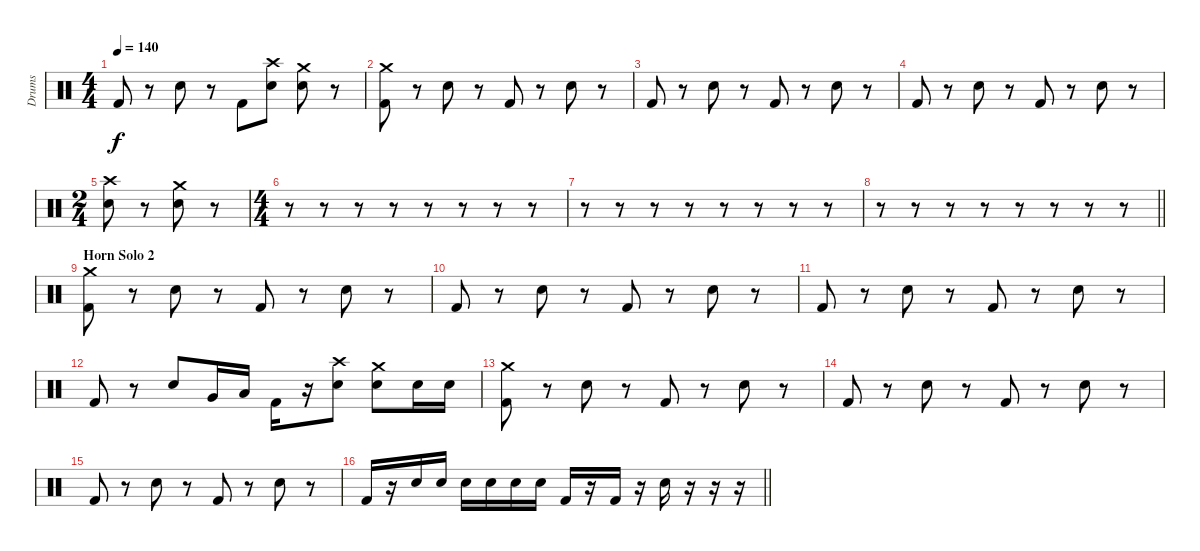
\track ("Drums" "Drums") {instrument percussion}
\staff {score}
\articulation defaults
\ts (4 4)
\tempo 140
\clef neutral
\ks c "Kick (hit) 2".8{dy f}
r.8 "Snare (hit) 2".8 r.8 "Kick (hit) 2".8 ("Crash high (hit)" "Snare (hit) 2").8 ("Crash medium (hit)" "Snare (hit) 2").8 r.8 |
("Crash medium (hit)" "Kick (hit) 2").8 r.8 "Snare (hit) 2".8 r.8 "Kick (hit) 2".8 r.8 "Snare (hit) 2".8 r.8 |
"Kick (hit) 2".8 r.8 "Snare (hit) 2".8 r.8 "Kick (hit) 2".8 r.8 "Snare (hit) 2".8 r.8 |
"Kick (hit) 2".8 r.8 "Snare (hit) 2".8 r.8 "Kick (hit) 2".8 r.8 "Snare (hit) 2".8 r.8 |
\ts (2 4)
("Crash high (hit)" "Snare (hit) 2").8 r.8 ("Crash medium (hit)" "Snare (hit) 2").8 r.8 |
\ts (4 4)
r.8 r.8 r.8 r.8 r.8 r.8 r.8 r.8 |
r.8 r.8 r.8 r.8 r.8 r.8 r.8 r.8 |
\barLineRight lightlight
r.8 r.8 r.8 r.8 r.8 r.8 r.8 r.8 |
\section ("" "Horn Solo 2")
("Crash medium (hit)" "Kick (hit) 2").8 r.8 "Snare (hit) 2".8 r.8 "Kick (hit) 2".8 r.8 "Snare (hit) 2".8 r.8 |
"Kick (hit) 2".8 r.8 "Snare (hit) 2".8 r.8 "Kick (hit) 2".8 r.8 "Snare (hit) 2".8 r.8 |
"Kick (hit) 2".8 r.8 "Snare (hit) 2".8 r.8 "Kick (hit) 2".8 r.8 "Snare (hit) 2".8 r.8 |
"Kick (hit) 2".8 r.8 "Snare (hit) 2".8 "Very Low Tom (hit)".16 "Low Floor Tom (hit)".16 "Kick (hit) 2".16 r.16 ("Crash high (hit)" "Snare (hit) 2").8 ("Crash medium (hit)" "Snare (hit) 2").8 "Snare (hit) 2".16 "Snare (hit) 2".16 |
("Crash medium (hit)" "Kick (hit) 2").8 r.8 "Snare (hit) 2".8 r.8 "Kick (hit) 2".8 r.8 "Snare (hit) 2".8 r.8 |
"Kick (hit) 2".8 r.8 "Snare (hit) 2".8 r.8 "Kick (hit) 2".8 r.8 "Snare (hit) 2".8 r.8 |
"Kick (hit) 2".8 r.8 "Snare (hit) 2".8 r.8 "Kick (hit) 2".8 r.8 "Snare (hit) 2".8 r.8 |
\barLineRight lightlight "Kick (hit) 2".16
r.16 "Snare (hit) 2".16 "Snare (hit) 2".16 "Snare (hit) 2".16 "Snare (hit) 2".16 "Snare (hit) 2".16 "Snare (hit) 2".16 "Kick (hit) 2".16 r.16 "Kick (hit) 2".16 r.16 "Snare (hit) 2".16 r.16 r.16 r.16
